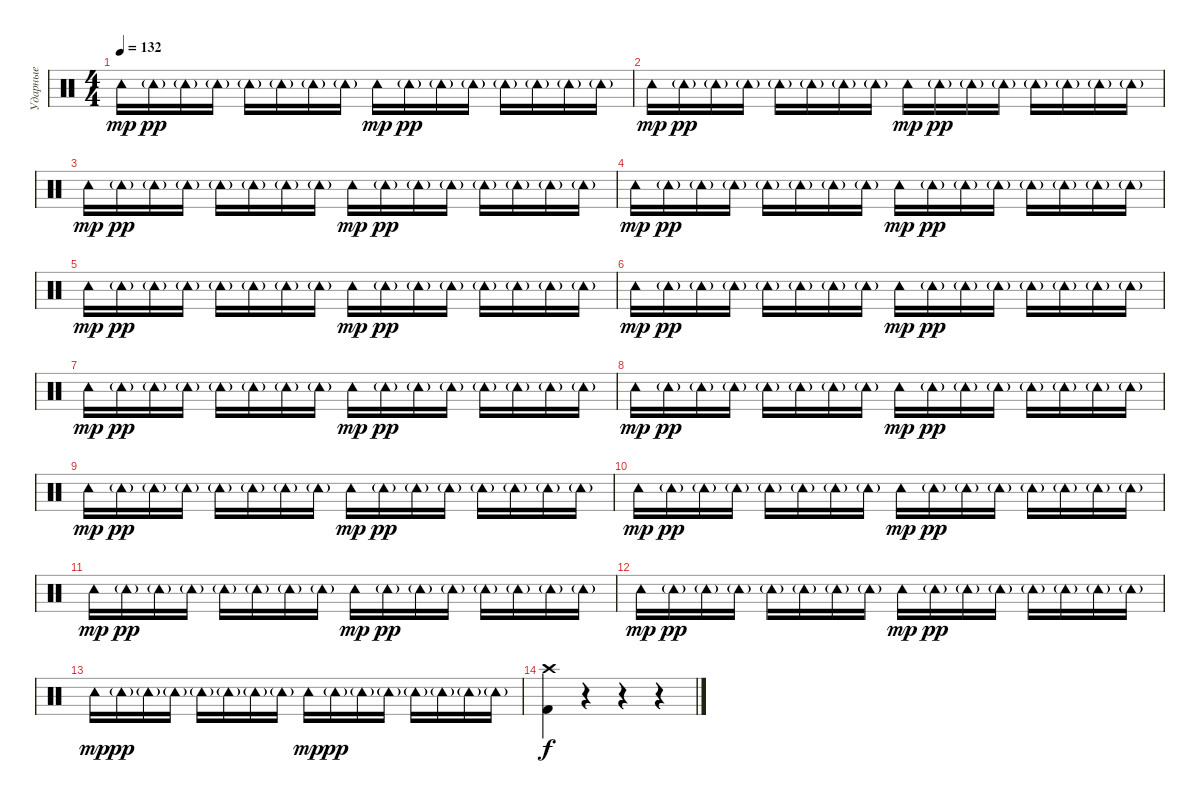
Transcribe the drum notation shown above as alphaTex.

\track ("Ударные" "Ударные") {instrument percussion}
\staff {score}
\articulation defaults
\ts (4 4)
\tempo 132
\clef neutral
\ks c "Tambourine (hit)".16{dy mp} "Tambourine (hit)"{g}.16{dy pp} "Tambourine (hit)"{g}.16 "Tambourine (hit)"{g}.16 "Tambourine (hit)"{g}.16 "Tambourine (hit)"{g}.16 "Tambourine (hit)"{g}.16 "Tambourine (hit)"{g}.16 "Tambourine (hit)".16{dy mp} "Tambourine (hit)"{g}.16{dy pp} "Tambourine (hit)"{g}.16 "Tambourine (hit)"{g}.16 "Tambourine (hit)"{g}.16 "Tambourine (hit)"{g}.16 "Tambourine (hit)"{g}.16 "Tambourine (hit)"{g}.16
|
"Tambourine (hit)".16{dy mp} "Tambourine (hit)"{g}.16{dy pp} "Tambourine (hit)"{g}.16 "Tambourine (hit)"{g}.16 "Tambourine (hit)"{g}.16 "Tambourine (hit)"{g}.16 "Tambourine (hit)"{g}.16 "Tambourine (hit)"{g}.16 "Tambourine (hit)".16{dy mp} "Tambourine (hit)"{g}.16{dy pp} "Tambourine (hit)"{g}.16 "Tambourine (hit)"{g}.16 "Tambourine (hit)"{g}.16 "Tambourine (hit)"{g}.16 "Tambourine (hit)"{g}.16 "Tambourine (hit)"{g}.16 |
"Tambourine (hit)".16{dy mp} "Tambourine (hit)"{g}.16{dy pp} "Tambourine (hit)"{g}.16 "Tambourine (hit)"{g}.16 "Tambourine (hit)"{g}.16 "Tambourine (hit)"{g}.16 "Tambourine (hit)"{g}.16 "Tambourine (hit)"{g}.16 "Tambourine (hit)".16{dy mp} "Tambourine (hit)"{g}.16{dy pp} "Tambourine (hit)"{g}.16 "Tambourine (hit)"{g}.16 "Tambourine (hit)"{g}.16 "Tambourine (hit)"{g}.16 "Tambourine (hit)"{g}.16 "Tambourine (hit)"{g}.16 |
"Tambourine (hit)".16{dy mp} "Tambourine (hit)"{g}.16{dy pp} "Tambourine (hit)"{g}.16 "Tambourine (hit)"{g}.16 "Tambourine (hit)"{g}.16 "Tambourine (hit)"{g}.16 "Tambourine (hit)"{g}.16 "Tambourine (hit)"{g}.16 "Tambourine (hit)".16{dy mp} "Tambourine (hit)"{g}.16{dy pp} "Tambourine (hit)"{g}.16 "Tambourine (hit)"{g}.16 "Tambourine (hit)"{g}.16 "Tambourine (hit)"{g}.16 "Tambourine (hit)"{g}.16 "Tambourine (hit)"{g}.16 |
"Tambourine (hit)".16{dy mp} "Tambourine (hit)"{g}.16{dy pp} "Tambourine (hit)"{g}.16 "Tambourine (hit)"{g}.16 "Tambourine (hit)"{g}.16 "Tambourine (hit)"{g}.16 "Tambourine (hit)"{g}.16 "Tambourine (hit)"{g}.16 "Tambourine (hit)".16{dy mp} "Tambourine (hit)"{g}.16{dy pp} "Tambourine (hit)"{g}.16 "Tambourine (hit)"{g}.16 "Tambourine (hit)"{g}.16 "Tambourine (hit)"{g}.16 "Tambourine (hit)"{g}.16 "Tambourine (hit)"{g}.16 |
"Tambourine (hit)".16{dy mp} "Tambourine (hit)"{g}.16{dy pp} "Tambourine (hit)"{g}.16 "Tambourine (hit)"{g}.16 "Tambourine (hit)"{g}.16 "Tambourine (hit)"{g}.16 "Tambourine (hit)"{g}.16 "Tambourine (hit)"{g}.16 "Tambourine (hit)".16{dy mp} "Tambourine (hit)"{g}.16{dy pp} "Tambourine (hit)"{g}.16 "Tambourine (hit)"{g}.16 "Tambourine (hit)"{g}.16 "Tambourine (hit)"{g}.16 "Tambourine (hit)"{g}.16 "Tambourine (hit)"{g}.16 |
"Tambourine (hit)".16{dy mp} "Tambourine (hit)"{g}.16{dy pp} "Tambourine (hit)"{g}.16 "Tambourine (hit)"{g}.16 "Tambourine (hit)"{g}.16 "Tambourine (hit)"{g}.16 "Tambourine (hit)"{g}.16 "Tambourine (hit)"{g}.16 "Tambourine (hit)".16{dy mp} "Tambourine (hit)"{g}.16{dy pp} "Tambourine (hit)"{g}.16 "Tambourine (hit)"{g}.16 "Tambourine (hit)"{g}.16 "Tambourine (hit)"{g}.16 "Tambourine (hit)"{g}.16 "Tambourine (hit)"{g}.16 |
"Tambourine (hit)".16{dy mp} "Tambourine (hit)"{g}.16{dy pp} "Tambourine (hit)"{g}.16 "Tambourine (hit)"{g}.16 "Tambourine (hit)"{g}.16 "Tambourine (hit)"{g}.16 "Tambourine (hit)"{g}.16 "Tambourine (hit)"{g}.16 "Tambourine (hit)".16{dy mp} "Tambourine (hit)"{g}.16{dy pp} "Tambourine (hit)"{g}.16 "Tambourine (hit)"{g}.16 "Tambourine (hit)"{g}.16 "Tambourine (hit)"{g}.16 "Tambourine (hit)"{g}.16 "Tambourine (hit)"{g}.16 |
"Tambourine (hit)".16{dy mp} "Tambourine (hit)"{g}.16{dy pp} "Tambourine (hit)"{g}.16 "Tambourine (hit)"{g}.16 "Tambourine (hit)"{g}.16 "Tambourine (hit)"{g}.16 "Tambourine (hit)"{g}.16 "Tambourine (hit)"{g}.16 "Tambourine (hit)".16{dy mp} "Tambourine (hit)"{g}.16{dy pp} "Tambourine (hit)"{g}.16 "Tambourine (hit)"{g}.16 "Tambourine (hit)"{g}.16 "Tambourine (hit)"{g}.16 "Tambourine (hit)"{g}.16 "Tambourine (hit)"{g}.16 |
"Tambourine (hit)".16{dy mp} "Tambourine (hit)"{g}.16{dy pp} "Tambourine (hit)"{g}.16 "Tambourine (hit)"{g}.16 "Tambourine (hit)"{g}.16 "Tambourine (hit)"{g}.16 "Tambourine (hit)"{g}.16 "Tambourine (hit)"{g}.16 "Tambourine (hit)".16{dy mp} "Tambourine (hit)"{g}.16{dy pp} "Tambourine (hit)"{g}.16 "Tambourine (hit)"{g}.16 "Tambourine (hit)"{g}.16 "Tambourine (hit)"{g}.16 "Tambourine (hit)"{g}.16 "Tambourine (hit)"{g}.16 |
"Tambourine (hit)".16{dy mp} "Tambourine (hit)"{g}.16{dy pp} "Tambourine (hit)"{g}.16 "Tambourine (hit)"{g}.16 "Tambourine (hit)"{g}.16 "Tambourine (hit)"{g}.16 "Tambourine (hit)"{g}.16 "Tambourine (hit)"{g}.16 "Tambourine (hit)".16{dy mp} "Tambourine (hit)"{g}.16{dy pp} "Tambourine (hit)"{g}.16 "Tambourine (hit)"{g}.16 "Tambourine (hit)"{g}.16 "Tambourine (hit)"{g}.16 "Tambourine (hit)"{g}.16 "Tambourine (hit)"{g}.16 |
"Tambourine (hit)".16{dy mp} "Tambourine (hit)"{g}.16{dy pp} "Tambourine (hit)"{g}.16 "Tambourine (hit)"{g}.16 "Tambourine (hit)"{g}.16 "Tambourine (hit)"{g}.16 "Tambourine (hit)"{g}.16 "Tambourine (hit)"{g}.16 "Tambourine (hit)".16{dy mp} "Tambourine (hit)"{g}.16{dy pp} "Tambourine (hit)"{g}.16 "Tambourine (hit)"{g}.16 "Tambourine (hit)"{g}.16 "Tambourine (hit)"{g}.16 "Tambourine (hit)"{g}.16 "Tambourine (hit)"{g}.16 |
"Tambourine (hit)".16{dy mp} "Tambourine (hit)"{g}.16{dy pp} "Tambourine (hit)"{g}.16 "Tambourine (hit)"{g}.16 "Tambourine (hit)"{g}.16 "Tambourine (hit)"{g}.16 "Tambourine (hit)"{g}.16 "Tambourine (hit)"{g}.16 "Tambourine (hit)".16{dy mp} "Tambourine (hit)"{g}.16{dy pp} "Tambourine (hit)"{g}.16 "Tambourine (hit)"{g}.16 "Tambourine (hit)"{g}.16 "Tambourine (hit)"{g}.16 "Tambourine (hit)"{g}.16 "Tambourine (hit)"{g}.16 |
("Crash high (hit)" "Kick (hit) 2").4{dy f} r.4 r.4 r.4
